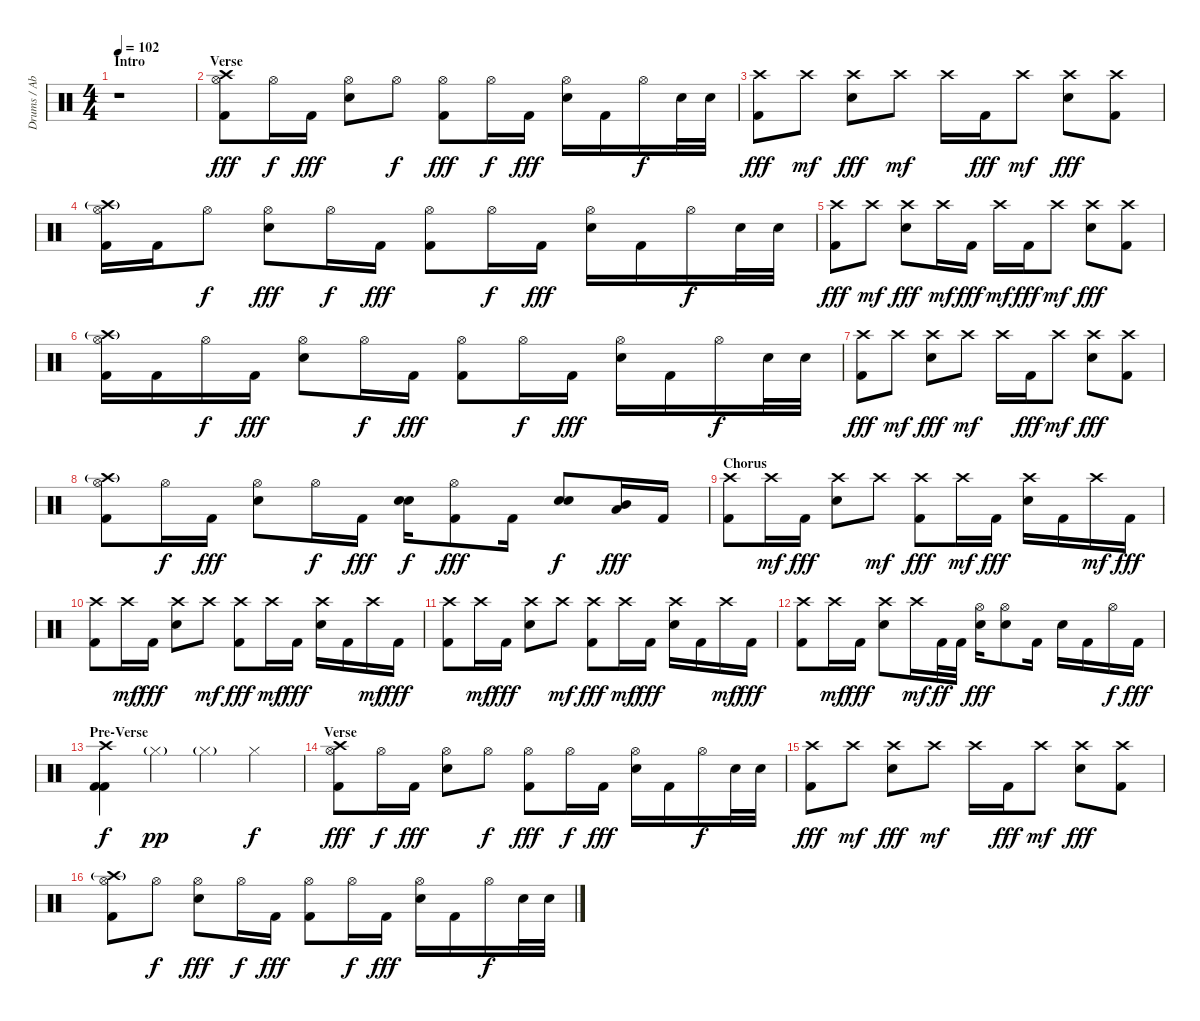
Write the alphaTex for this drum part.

\track ("Drums / Abe Cunningham" "Drums / Ab") {instrument percussion}
\staff {score}
\articulation defaults
\ts (4 4)
\section ("" "Intro")
\tempo 102
\clef neutral
\ks c
r.1{dy fff} |
\section ("" "Verse")
("Crash high (hit)" "Hi-Hat (open)" "Kick (hit) 2").8 "Hi-Hat (open)".16{dy f} "Kick (hit) 2".16{dy fff} ("Hi-Hat (open)" "Electric Snare (hit)").8 "Hi-Hat (open)".8{dy f} ("Hi-Hat (open)" "Kick (hit) 2").8{dy fff} "Hi-Hat (open)".16{dy f} "Kick (hit) 2".16{dy fff} ("Hi-Hat (open)" "Electric Snare (hit)").16 "Kick (hit) 2".16 "Hi-Hat (open)".16{dy f} "Electric Snare (hit)".32 "Electric Snare (hit)".32 |
("Crash high (hit)" "Kick (hit) 2").8{dy fff} "Crash high (hit)".8{dy mf} ("Crash high (hit)" "Electric Snare (hit)").8{dy fff} "Crash high (hit)".8{dy mf} "Crash high (hit)".16 "Kick (hit) 2".16{dy fff} "Crash high (hit)".8{dy mf} ("Crash high (hit)" "Electric Snare (hit)").8{dy fff} ("Crash high (hit)" "Kick (hit) 2").8 |
("Crash high (hit)"{g} "Hi-Hat (open)" "Kick (hit) 2").16 "Kick (hit) 2".16 "Hi-Hat (open)".8{dy f} ("Hi-Hat (open)" "Electric Snare (hit)").8{dy fff} "Hi-Hat (open)".16{dy f} "Kick (hit) 2".16{dy fff} ("Hi-Hat (open)" "Kick (hit) 2").8 "Hi-Hat (open)".16{dy f} "Kick (hit) 2".16{dy fff} ("Hi-Hat (open)" "Electric Snare (hit)").16 "Kick (hit) 2".16 "Hi-Hat (open)".16{dy f} "Electric Snare (hit)".32 "Electric Snare (hit)".32 |
("Crash high (hit)" "Kick (hit) 2").8{dy fff} "Crash high (hit)".8{dy mf} ("Crash high (hit)" "Electric Snare (hit)").8{dy fff} "Crash high (hit)".16{dy mf} "Kick (hit) 2".16{dy fff} "Crash high (hit)".16{dy mf} "Kick (hit) 2".16{dy fff} "Crash high (hit)".8{dy mf} ("Crash high (hit)" "Electric Snare (hit)").8{dy fff} ("Crash high (hit)" "Kick (hit) 2").8 |
("Crash high (hit)"{g} "Hi-Hat (open)" "Kick (hit) 2").16 "Kick (hit) 2".16 "Hi-Hat (open)".16{dy f} "Kick (hit) 2".16{dy fff} ("Hi-Hat (open)" "Electric Snare (hit)").8 "Hi-Hat (open)".16{dy f} "Kick (hit) 2".16{dy fff} ("Hi-Hat (open)" "Kick (hit) 2").8 "Hi-Hat (open)".16{dy f} "Kick (hit) 2".16{dy fff} ("Hi-Hat (open)" "Electric Snare (hit)").16 "Kick (hit) 2".16 "Hi-Hat (open)".16{dy f} "Electric Snare (hit)".32 "Electric Snare (hit)".32 |
("Crash high (hit)" "Kick (hit) 2").8{dy fff} "Crash high (hit)".8{dy mf} ("Crash high (hit)" "Electric Snare (hit)").8{dy fff} "Crash high (hit)".8{dy mf} "Crash high (hit)".16 "Kick (hit) 2".16{dy fff} "Crash high (hit)".8{dy mf} ("Crash high (hit)" "Electric Snare (hit)").8{dy fff} ("Crash high (hit)" "Kick (hit) 2").8 |
("Crash high (hit)"{g} "Hi-Hat (open)" "Kick (hit) 2").8 "Hi-Hat (open)".16{dy f} "Kick (hit) 2".16{dy fff} ("Hi-Hat (open)" "Electric Snare (hit)").8 "Hi-Hat (open)".16{dy f} "Kick (hit) 2".16{dy fff} ("Electric Snare (hit)" "Electric Snare (hit)").16{dy f} ("Hi-Hat (open)" "Kick (hit) 2").8{dy fff} "Kick (hit) 2".16 ("Electric Snare (hit)" "Electric Snare (hit)").8{dy f} ("Mid Tom (hit)" "Low Tom (hit)").16{dy fff} "Kick (hit) 2".16 |
\section ("" "Chorus")
("Crash high (hit)" "Kick (hit) 2").8 "Crash high (hit)".16{dy mf} "Kick (hit) 2".16{dy fff} ("Crash high (hit)" "Electric Snare (hit)").8 "Crash high (hit)".8{dy mf} ("Crash high (hit)" "Kick (hit) 2").8{dy fff} "Crash high (hit)".16{dy mf} "Kick (hit) 2".16{dy fff} ("Crash high (hit)" "Electric Snare (hit)").16 "Kick (hit) 2".16 "Crash high (hit)".16{dy mf} "Kick (hit) 2".16{dy fff} |
("Crash high (hit)" "Kick (hit) 2").8 "Crash high (hit)".16{dy mf} "Kick (hit) 2".16{dy fff} ("Crash high (hit)" "Electric Snare (hit)").8 "Crash high (hit)".8{dy mf} ("Crash high (hit)" "Kick (hit) 2").8{dy fff} "Crash high (hit)".16{dy mf} "Kick (hit) 2".16{dy fff} ("Crash high (hit)" "Electric Snare (hit)").16 "Kick (hit) 2".16 "Crash high (hit)".16{dy mf} "Kick (hit) 2".16{dy fff} |
("Crash high (hit)" "Kick (hit) 2").8 "Crash high (hit)".16{dy mf} "Kick (hit) 2".16{dy fff} ("Crash high (hit)" "Electric Snare (hit)").8 "Crash high (hit)".8{dy mf} ("Crash high (hit)" "Kick (hit) 2").8{dy fff} "Crash high (hit)".16{dy mf} "Kick (hit) 2".16{dy fff} ("Crash high (hit)" "Electric Snare (hit)").16 "Kick (hit) 2".16 "Crash high (hit)".16{dy mf} "Kick (hit) 2".16{dy fff} |
("Crash high (hit)" "Kick (hit) 2").8 "Crash high (hit)".16{dy mf} "Kick (hit) 2".16{dy fff} ("Crash high (hit)" "Electric Snare (hit)").8 "Crash high (hit)".16{dy mf} "Kick (hit) 2".32{dy ff} "Kick (hit) 2".32 ("Hi-Hat (open)" "Electric Snare (hit)").16{dy fff} ("Hi-Hat (open)" "Electric Snare (hit)").8 "Kick (hit) 2".16 "Electric Snare (hit)".16 "Kick (hit) 2".16 "Hi-Hat (open)".16{dy f} "Kick (hit) 2".16{dy fff} |
\section ("" "Pre-Verse")
("Crash high (hit)" "Kick (hit) 2" "Kick (hit) 2").4{dy f} "Hi-Hat (closed)"{g}.4{dy pp} "Hi-Hat (closed)"{g}.4 "Hi-Hat (closed)".4{dy f} |
\section ("" "Verse")
("Crash high (hit)" "Hi-Hat (open)" "Kick (hit) 2").8{dy fff} "Hi-Hat (open)".16{dy f} "Kick (hit) 2".16{dy fff} ("Hi-Hat (open)" "Electric Snare (hit)").8 "Hi-Hat (open)".8{dy f} ("Hi-Hat (open)" "Kick (hit) 2").8{dy fff} "Hi-Hat (open)".16{dy f} "Kick (hit) 2".16{dy fff} ("Hi-Hat (open)" "Electric Snare (hit)").16 "Kick (hit) 2".16 "Hi-Hat (open)".16{dy f} "Electric Snare (hit)".32 "Electric Snare (hit)".32 |
("Crash high (hit)" "Kick (hit) 2").8{dy fff} "Crash high (hit)".8{dy mf} ("Crash high (hit)" "Electric Snare (hit)").8{dy fff} "Crash high (hit)".8{dy mf} "Crash high (hit)".16 "Kick (hit) 2".16{dy fff} "Crash high (hit)".8{dy mf} ("Crash high (hit)" "Electric Snare (hit)").8{dy fff} ("Crash high (hit)" "Kick (hit) 2").8 |
("Crash high (hit)"{g} "Hi-Hat (open)" "Kick (hit) 2").8 "Hi-Hat (open)".8{dy f} ("Hi-Hat (open)" "Electric Snare (hit)").8{dy fff} "Hi-Hat (open)".16{dy f} "Kick (hit) 2".16{dy fff} ("Hi-Hat (open)" "Kick (hit) 2").8 "Hi-Hat (open)".16{dy f} "Kick (hit) 2".16{dy fff} ("Hi-Hat (open)" "Electric Snare (hit)").16 "Kick (hit) 2".16 "Hi-Hat (open)".16{dy f} "Electric Snare (hit)".32 "Electric Snare (hit)".32
